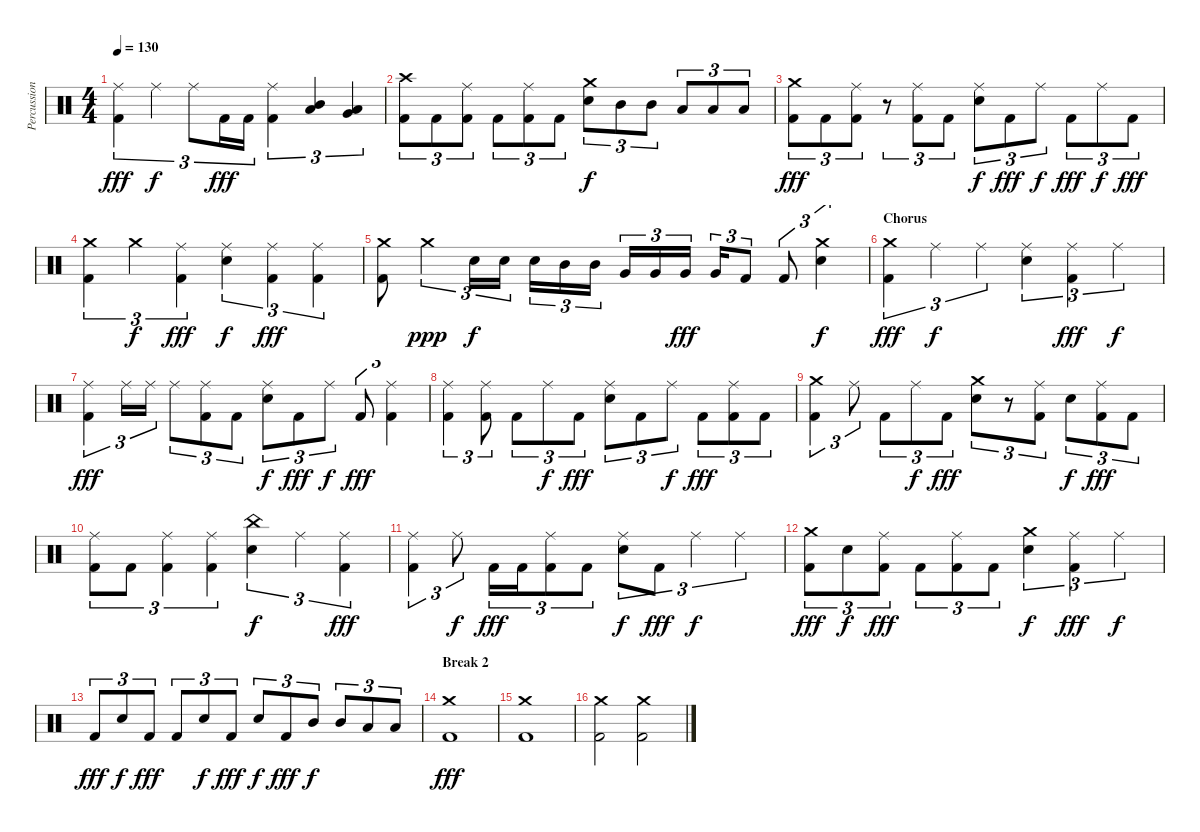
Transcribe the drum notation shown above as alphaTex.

\track ("Percussion" "Percussion") {instrument percussion}
\staff {score}
\articulation defaults
\ts (4 4)
\tempo 130
\clef neutral
\ks c
("Ride (middle)" "Kick (hit) 2").4{tu (3 2) dy fff} "Ride (middle)".4{tu (3 2) dy f} "Ride (middle)".8{tu (3 2)} "Kick (hit) 2".16{tu (3 2) dy fff} "Kick (hit) 2".16{tu (3 2)} ("Ride (middle)" "Kick (hit) 2").4{tu (3 2)} ("Mid Tom (hit)" "Low Tom (hit)").4{tu (3 2)} ("Very Low Tom (hit)" "Low Tom (hit)").4{tu (3 2)} |
("Crash high (hit)" "Kick (hit) 2").8{tu (3 2)} "Kick (hit) 2".8{tu (3 2)} ("Ride (middle)" "Kick (hit) 2").8{tu (3 2)} "Kick (hit) 2".8{tu (3 2)} ("Ride (middle)" "Kick (hit) 2").8{tu (3 2)} "Kick (hit) 2".8{tu (3 2)} ("Crash medium (hit)" "Electric Snare (hit)").8{tu (3 2) dy f} "Mid Tom (hit)".8{tu (3 2)} "Mid Tom (hit)".8{tu (3 2)} "Low Tom (hit)".8{tu (3 2)} "Low Tom (hit)".8{tu (3 2)} "Low Tom (hit)".8{tu (3 2)} |
("Crash medium (hit)" "Kick (hit) 2").8{tu (3 2) dy fff} "Kick (hit) 2".8{tu (3 2)} ("Ride (middle)" "Kick (hit) 2").8{tu (3 2)} r.8{tu (3 2)} ("Ride (middle)" "Kick (hit) 2").8{tu (3 2)} "Kick (hit) 2".8{tu (3 2)} ("Ride (middle)" "Electric Snare (hit)").8{tu (3 2) dy f} "Kick (hit) 2".8{tu (3 2) dy fff} "Ride (middle)".8{tu (3 2) dy f} "Kick (hit) 2".8{tu (3 2) dy fff} "Ride (middle)".8{tu (3 2) dy f} "Kick (hit) 2".8{tu (3 2) dy fff} |
("Crash medium (hit)" "Kick (hit) 2").4{tu (3 2)} "Crash medium (hit)".4{tu (3 2) dy f} ("Ride (middle)" "Kick (hit) 2").4{tu (3 2) dy fff} ("Ride (middle)" "Electric Snare (hit)").4{tu (3 2) dy f} ("Ride (middle)" "Kick (hit) 2").4{tu (3 2) dy fff} ("Ride (middle)" "Kick (hit) 2").4{tu (3 2)} |
("Crash medium (hit)" "Kick (hit) 2").8 "Crash medium (hit)".4{tu (3 2) dy ppp} "Electric Snare (hit)".16{tu (3 2) dy f} "Electric Snare (hit)".16{tu (3 2)} "Electric Snare (hit)".16{tu (3 2)} "Mid Tom (hit)".16{tu (3 2)} "Mid Tom (hit)".16{tu (3 2)} "Very Low Tom (hit)".16{tu (3 2)} "Very Low Tom (hit)".16{tu (3 2)} "Very Low Tom (hit)".16{tu (3 2) dy fff} "Very Low Tom (hit)".16{tu (3 2)} "Kick (hit) 2".8{tu (3 2)} "Kick (hit) 2".8{tu (3 2)} ("Crash medium (hit)" "Electric Snare (hit)").4{tu (3 2) dy f} |
\section ("" "Chorus")
("Crash medium (hit)" "Kick (hit) 2").4{tu (3 2) dy fff} "Ride (middle)".4{tu (3 2) dy f} "Ride (middle)".4{tu (3 2)} ("Ride (middle)" "Electric Snare (hit)").4{tu (3 2)} ("Ride (middle)" "Kick (hit) 2").4{tu (3 2) dy fff} "Ride (middle)".4{tu (3 2) dy f} |
("Ride (middle)" "Kick (hit) 2").4{tu (3 2) dy fff} "Ride (middle)".16{tu (3 2)} "Ride (middle)".16{tu (3 2)} "Ride (middle)".8{tu (3 2)} ("Ride (middle)" "Kick (hit) 2").8{tu (3 2)} "Kick (hit) 2".8{tu (3 2)} ("Ride (middle)" "Electric Snare (hit)").8{tu (3 2) dy f} "Kick (hit) 2".8{tu (3 2) dy fff} "Ride (middle)".8{tu (3 2) dy f} "Kick (hit) 2".8{tu (3 2) dy fff} ("Ride (middle)" "Kick (hit) 2").4{tu (3 2)} |
("Ride (middle)" "Kick (hit) 2").4{tu (3 2)} ("Ride (middle)" "Kick (hit) 2").8{tu (3 2)} "Kick (hit) 2".8{tu (3 2)} "Ride (middle)".8{tu (3 2) dy f} "Kick (hit) 2".8{tu (3 2) dy fff} ("Ride (middle)" "Electric Snare (hit)").8{tu (3 2)} "Kick (hit) 2".8{tu (3 2)} "Ride (middle)".8{tu (3 2) dy f} "Kick (hit) 2".8{tu (3 2) dy fff} ("Ride (middle)" "Kick (hit) 2").8{tu (3 2)} "Kick (hit) 2".8{tu (3 2)} |
("Crash medium (hit)" "Kick (hit) 2").4{tu (3 2)} "Ride (middle)".8{tu (3 2)} "Kick (hit) 2".8{tu (3 2)} "Ride (middle)".8{tu (3 2) dy f} "Kick (hit) 2".8{tu (3 2) dy fff} ("Crash medium (hit)" "Electric Snare (hit)").8{tu (3 2)} r.8{tu (3 2)} ("Ride (middle)" "Kick (hit) 2").8{tu (3 2)} "Electric Snare (hit)".8{tu (3 2) dy f} ("Ride (middle)" "Kick (hit) 2").8{tu (3 2) dy fff} "Kick (hit) 2".8{tu (3 2)} |
("Ride (middle)" "Kick (hit) 2").8{tu (3 2)} "Kick (hit) 2".8{tu (3 2)} ("Ride (middle)" "Kick (hit) 2").4{tu (3 2)} ("Ride (middle)" "Kick (hit) 2").4{tu (3 2)} ("China (hit)" "Electric Snare (hit)").4{tu (3 2) dy f} "Ride (middle)".4{tu (3 2)} ("Ride (middle)" "Kick (hit) 2").4{tu (3 2) dy fff} |
("Ride (middle)" "Kick (hit) 2").4{tu (3 2)} "Ride (middle)".8{tu (3 2) dy f} "Kick (hit) 2".16{tu (3 2) dy fff} "Kick (hit) 2".16{tu (3 2)} ("Ride (middle)" "Kick (hit) 2").8{tu (3 2)} "Kick (hit) 2".8{tu (3 2)} ("Ride (middle)" "Electric Snare (hit)").8{tu (3 2) dy f} "Kick (hit) 2".8{tu (3 2) dy fff} "Ride (middle)".4{tu (3 2) dy f} "Ride (middle)".4{tu (3 2)} |
("Crash medium (hit)" "Kick (hit) 2").8{tu (3 2) dy fff} "Electric Snare (hit)".8{tu (3 2) dy f} ("Ride (middle)" "Kick (hit) 2").8{tu (3 2) dy fff} "Kick (hit) 2".8{tu (3 2)} ("Ride (middle)" "Kick (hit) 2").8{tu (3 2)} "Kick (hit) 2".8{tu (3 2)} ("Crash medium (hit)" "Electric Snare (hit)").4{tu (3 2) dy f} ("Ride (middle)" "Kick (hit) 2").4{tu (3 2) dy fff} "Ride (middle)".4{tu (3 2) dy f} |
"Kick (hit) 2".8{tu (3 2) dy fff} "Electric Snare (hit)".8{tu (3 2) dy f} "Kick (hit) 2".8{tu (3 2) dy fff} "Kick (hit) 2".8{tu (3 2)} "Electric Snare (hit)".8{tu (3 2) dy f} "Kick (hit) 2".8{tu (3 2) dy fff} "Electric Snare (hit)".8{tu (3 2) dy f} "Kick (hit) 2".8{tu (3 2) dy fff} "Mid Tom (hit)".8{tu (3 2) dy f} "Mid Tom (hit)".8{tu (3 2)} "Low Tom (hit)".8{tu (3 2)} "Low Tom (hit)".8{tu (3 2)} |
\section ("" "Break 2")
("Crash medium (hit)" "Kick (hit) 2").1{dy fff} |
("Crash medium (hit)" "Kick (hit) 2").1 |
("Crash medium (hit)" "Kick (hit) 2").2 ("Crash medium (hit)" "Kick (hit) 2").2
